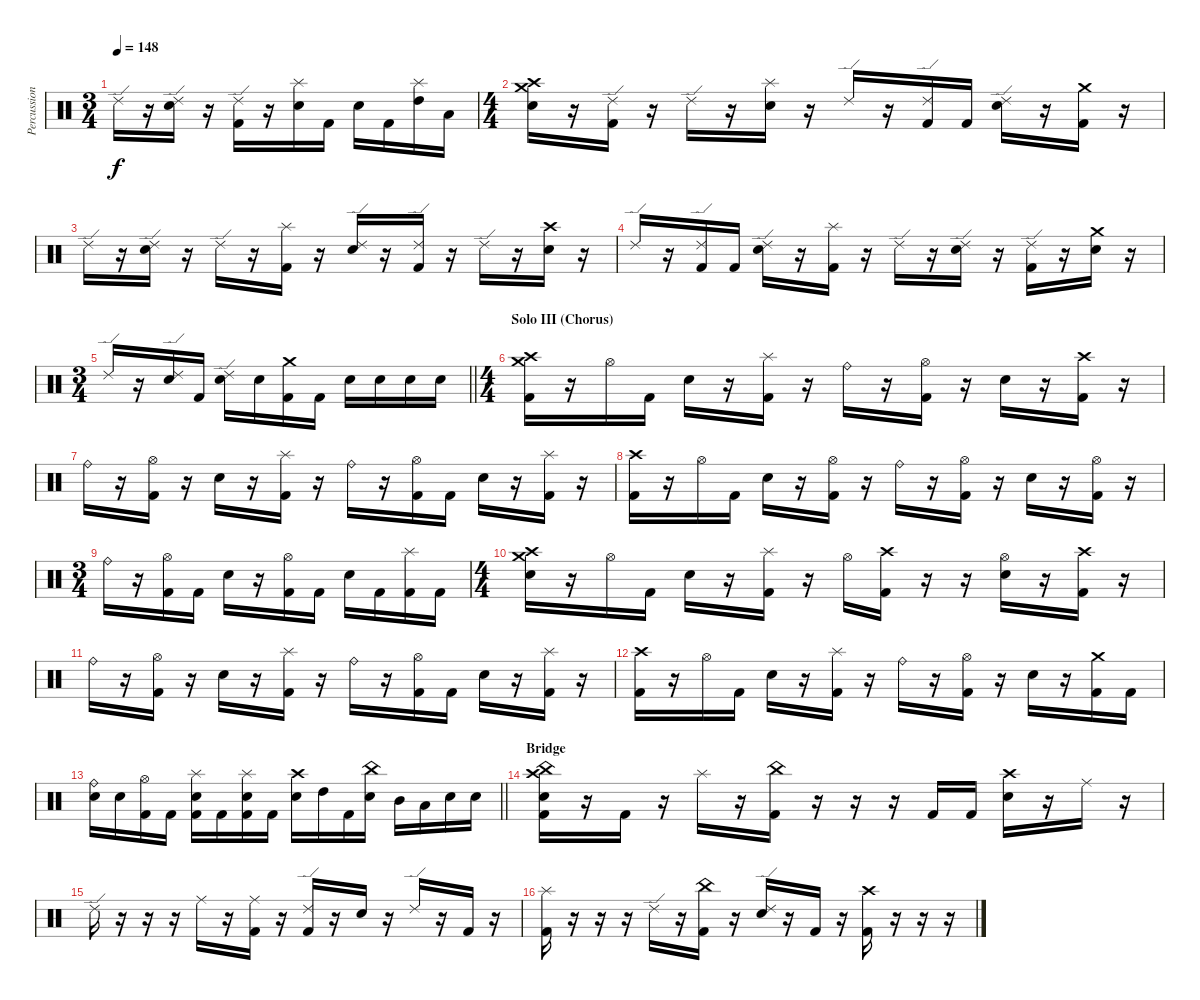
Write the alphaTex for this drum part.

\track ("Percussion" "Percussion") {instrument percussion}
\staff {score}
\articulation defaults
\ts (3 4)
\tempo 148
\clef neutral
\ks c "Ride (edge) 2".16{dy f}
r.16 ("Ride (edge) 2" "Electric Snare (hit)").16 r.16 ("Ride (edge) 2" "Kick (hit) 2").16 r.16 ("Splash (hit)" "Electric Snare (hit)").16 "Kick (hit) 2".16 "Electric Snare (hit)".16 "Kick (hit) 2".16 ("Splash (hit)" "High Tom (hit)").16 "Low Tom (hit)".16 |
\ts (4 4)
("Crash medium (hit)" "Crash high (hit)" "Electric Snare (hit)").16 r.16 ("Ride (edge) 2" "Kick (hit) 2").16 r.16 "Ride (edge) 2".16 r.16 ("Splash (hit)" "Electric Snare (hit)").16 r.16 "Ride (edge) 2".16 r.16 ("Ride (edge) 2" "Kick (hit) 2").16 "Kick (hit) 2".16 ("Ride (edge) 2" "Electric Snare (hit)").16 r.16 ("Crash medium (hit)" "Kick (hit) 2").16 r.16 |
"Ride (edge) 2".16 r.16 ("Ride (edge) 2" "Electric Snare (hit)").16 r.16 "Ride (edge) 2".16 r.16 ("Splash (hit)" "Kick (hit) 2").16 r.16 ("Ride (edge) 2" "Electric Snare (hit)").16 r.16 ("Ride (edge) 2" "Kick (hit) 2").16 r.16 "Ride (edge) 2".16 r.16 ("Crash high (hit)" "Electric Snare (hit)").16 r.16 |
"Ride (edge) 2".16 r.16 ("Ride (edge) 2" "Kick (hit) 2").16 "Kick (hit) 2".16 ("Ride (edge) 2" "Electric Snare (hit)").16 r.16 ("Splash (hit)" "Kick (hit) 2").16 r.16 "Ride (edge) 2".16 r.16 ("Ride (edge) 2" "Electric Snare (hit)").16 r.16 ("Ride (edge) 2" "Kick (hit) 2").16 r.16 ("Crash medium (hit)" "Electric Snare (hit)").16 r.16 |
\ts (3 4)
\barLineRight lightlight "Ride (edge) 2".16
r.16 ("Ride (edge) 2" "Electric Snare (hit)").16 "Kick (hit) 2".16 ("Ride (edge) 2" "Electric Snare (hit)").16 "Electric Snare (hit)".16 ("Crash medium (hit)" "Kick (hit) 2").16 "Kick (hit) 2".16 "Electric Snare (hit)".16 "Electric Snare (hit)".16 "Electric Snare (hit)".16 "Electric Snare (hit)".16 |
\ts (4 4)
\section ("" "Solo III (Chorus)")
("Crash medium (hit)" "Crash high (hit)" "Kick (hit) 2").16 r.16 "Hi-Hat (open)".16 "Kick (hit) 2".16 "Electric Snare (hit)".16 r.16 ("Splash (hit)" "Kick (hit) 2").16 r.16 "Ride (bell)".16 r.16 ("Hi-Hat (open)" "Kick (hit) 2").16 r.16 "Electric Snare (hit)".16 r.16 ("Crash high (hit)" "Kick (hit) 2").16 r.16 |
"Ride (bell)".16 r.16 ("Hi-Hat (open)" "Kick (hit) 2").16 r.16 "Electric Snare (hit)".16 r.16 ("Splash (hit)" "Kick (hit) 2").16 r.16 "Ride (bell)".16 r.16 ("Hi-Hat (open)" "Kick (hit) 2").16 "Kick (hit) 2".16 "Electric Snare (hit)".16 r.16 ("Splash (hit)" "Kick (hit) 2").16 r.16 |
("Crash high (hit)" "Kick (hit) 2").16 r.16 "Hi-Hat (open)".16 "Kick (hit) 2".16 "Electric Snare (hit)".16 r.16 ("Hi-Hat (open)" "Kick (hit) 2").16 r.16 "Ride (bell)".16 r.16 ("Hi-Hat (open)" "Kick (hit) 2").16 r.16 "Electric Snare (hit)".16 r.16 ("Hi-Hat (open)" "Kick (hit) 2").16 r.16 |
\ts (3 4)
"Ride (bell)".16 r.16 ("Hi-Hat (open)" "Kick (hit) 2").16 "Kick (hit) 2".16 "Electric Snare (hit)".16 r.16 ("Hi-Hat (open)" "Kick (hit) 2").16 "Kick (hit) 2".16 "Electric Snare (hit)".16 "Kick (hit) 2".16 ("Splash (hit)" "Kick (hit) 2").16 "Kick (hit) 2".16 |
\ts (4 4)
("Crash medium (hit)" "Crash high (hit)" "Electric Snare (hit)").16 r.16 "Hi-Hat (open)".16 "Kick (hit) 2".16 "Electric Snare (hit)".16 r.16 ("Splash (hit)" "Kick (hit) 2").16 r.16 "Hi-Hat (open)".16 ("Crash high (hit)" "Kick (hit) 2").16 r.16 r.16 ("Hi-Hat (open)" "Electric Snare (hit)").16 r.16 ("Crash high (hit)" "Kick (hit) 2").16 r.16 |
"Ride (bell)".16 r.16 ("Hi-Hat (open)" "Kick (hit) 2").16 r.16 "Electric Snare (hit)".16 r.16 ("Splash (hit)" "Kick (hit) 2").16 r.16 "Ride (bell)".16 r.16 ("Hi-Hat (open)" "Kick (hit) 2").16 "Kick (hit) 2".16 "Electric Snare (hit)".16 r.16 ("Splash (hit)" "Kick (hit) 2").16 r.16 |
("Crash high (hit)" "Kick (hit) 2").16 r.16 "Hi-Hat (open)".16 "Kick (hit) 2".16 "Electric Snare (hit)".16 r.16 ("Splash (hit)" "Kick (hit) 2").16 r.16 "Ride (bell)".16 r.16 ("Hi-Hat (open)" "Kick (hit) 2").16 r.16 "Electric Snare (hit)".16 r.16 ("Crash medium (hit)" "Kick (hit) 2").16 "Kick (hit) 2".16 |
\barLineRight lightlight
("Ride (bell)" "Electric Snare (hit)").16 "Electric Snare (hit)".16 ("Hi-Hat (open)" "Kick (hit) 2").16 "Kick (hit) 2".16 ("Splash (hit)" "Electric Snare (hit)" "Kick (hit) 2").16 "Kick (hit) 2".16 ("Splash (hit)" "Electric Snare (hit)" "Kick (hit) 2").16 "Kick (hit) 2".16 ("Crash high (hit)" "Electric Snare (hit)").16 "High Tom (hit)".16 "Kick (hit) 2".16 ("China (hit)" "Electric Snare (hit)").16 "Mid Tom (hit)".16 "Low Tom (hit)".16 "Electric Snare (hit)".16 "Electric Snare (hit)".16 |
\section ("" "Bridge")
("Crash high (hit)" "China (hit)" "Electric Snare (hit)" "Kick (hit) 2").16 r.16 "Kick (hit) 2".16 r.16 "Splash (hit)".16 r.16 ("China (hit)" "Kick (hit) 2").16 r.16 r.16 r.16 "Kick (hit) 2".16 "Kick (hit) 2".16 ("Crash high (hit)" "Electric Snare (hit)").16 r.16 "Ride (middle)".16 r.16 |
"Ride (edge) 2".16 r.16 r.16 r.16 "Ride (middle)".16 r.16 ("Ride (middle)" "Kick (hit) 2").16 r.16 ("Ride (edge) 2" "Kick (hit) 2").16 r.16 "Electric Snare (hit)".16 r.16 "Ride (edge) 2".16 r.16 "Kick (hit) 2".16 r.16 |
("Splash (hit)" "Kick (hit) 2").16 r.16 r.16 r.16 "Ride (edge) 2".16 r.16 ("China (hit)" "Kick (hit) 2").16 r.16 ("Ride (edge) 2" "Electric Snare (hit)").16 r.16 "Kick (hit) 2".16 r.16 ("Crash high (hit)" "Kick (hit) 2").16 r.16 r.16 r.16
